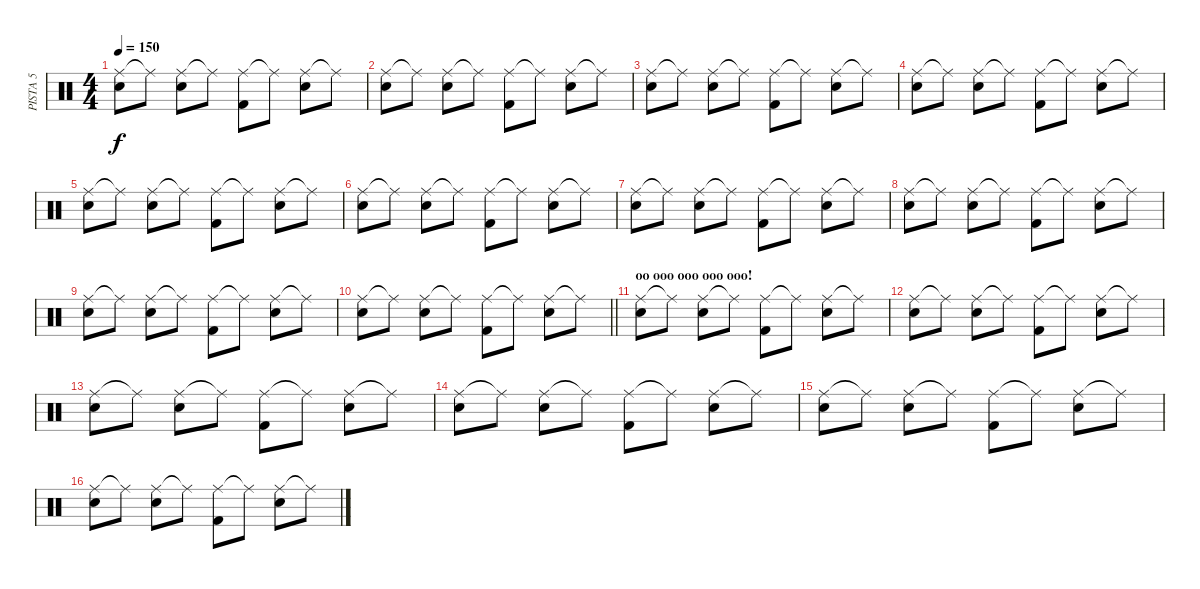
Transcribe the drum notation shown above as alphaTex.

\track ("PISTA 5" "PISTA 5") {instrument percussion}
\staff {score}
\articulation defaults
\ts (4 4)
\tempo 150
\clef neutral
\ks c
("Ride (middle)" "Snare (hit)").8{dy f} "Ride (middle)"{t}.8 ("Ride (middle)" "Electric Snare (hit)").8 "Ride (middle)"{t}.8 ("Ride (middle)" "Kick (hit) 2").8 "Ride (middle)"{t}.8 ("Ride (middle)" "Electric Snare (hit)").8 "Ride (middle)"{t}.8 |
("Ride (middle)" "Snare (hit)").8 "Ride (middle)"{t}.8 ("Ride (middle)" "Electric Snare (hit)").8 "Ride (middle)"{t}.8 ("Ride (middle)" "Kick (hit) 2").8 "Ride (middle)"{t}.8 ("Ride (middle)" "Electric Snare (hit)").8 "Ride (middle)"{t}.8 |
("Ride (middle)" "Snare (hit)").8 "Ride (middle)"{t}.8 ("Ride (middle)" "Electric Snare (hit)").8 "Ride (middle)"{t}.8 ("Ride (middle)" "Kick (hit) 2").8 "Ride (middle)"{t}.8 ("Ride (middle)" "Electric Snare (hit)").8 "Ride (middle)"{t}.8 |
("Ride (middle)" "Snare (hit)").8 "Ride (middle)"{t}.8 ("Ride (middle)" "Electric Snare (hit)").8 "Ride (middle)"{t}.8 ("Ride (middle)" "Kick (hit) 2").8 "Ride (middle)"{t}.8 ("Ride (middle)" "Electric Snare (hit)").8 "Ride (middle)"{t}.8 |
("Ride (middle)" "Snare (hit)").8 "Ride (middle)"{t}.8 ("Ride (middle)" "Electric Snare (hit)").8 "Ride (middle)"{t}.8 ("Ride (middle)" "Kick (hit) 2").8 "Ride (middle)"{t}.8 ("Ride (middle)" "Electric Snare (hit)").8 "Ride (middle)"{t}.8 |
("Ride (middle)" "Snare (hit)").8 "Ride (middle)"{t}.8 ("Ride (middle)" "Electric Snare (hit)").8 "Ride (middle)"{t}.8 ("Ride (middle)" "Kick (hit) 2").8 "Ride (middle)"{t}.8 ("Ride (middle)" "Electric Snare (hit)").8 "Ride (middle)"{t}.8 |
("Ride (middle)" "Snare (hit)").8 "Ride (middle)"{t}.8 ("Ride (middle)" "Electric Snare (hit)").8 "Ride (middle)"{t}.8 ("Ride (middle)" "Kick (hit) 2").8 "Ride (middle)"{t}.8 ("Ride (middle)" "Electric Snare (hit)").8 "Ride (middle)"{t}.8 |
("Ride (middle)" "Snare (hit)").8 "Ride (middle)"{t}.8 ("Ride (middle)" "Electric Snare (hit)").8 "Ride (middle)"{t}.8 ("Ride (middle)" "Kick (hit) 2").8 "Ride (middle)"{t}.8 ("Ride (middle)" "Electric Snare (hit)").8 "Ride (middle)"{t}.8 |
("Ride (middle)" "Snare (hit)").8 "Ride (middle)"{t}.8 ("Ride (middle)" "Electric Snare (hit)").8 "Ride (middle)"{t}.8 ("Ride (middle)" "Kick (hit) 2").8 "Ride (middle)"{t}.8 ("Ride (middle)" "Electric Snare (hit)").8 "Ride (middle)"{t}.8 |
\barLineRight lightlight
("Ride (middle)" "Snare (hit)").8 "Ride (middle)"{t}.8 ("Ride (middle)" "Electric Snare (hit)").8 "Ride (middle)"{t}.8 ("Ride (middle)" "Kick (hit) 2").8 "Ride (middle)"{t}.8 ("Ride (middle)" "Electric Snare (hit)").8 "Ride (middle)"{t}.8 |
\section ("" "oo ooo ooo ooo ooo!")
("Ride (middle)" "Snare (hit)").8 "Ride (middle)"{t}.8 ("Ride (middle)" "Electric Snare (hit)").8 "Ride (middle)"{t}.8 ("Ride (middle)" "Kick (hit) 2").8 "Ride (middle)"{t}.8 ("Ride (middle)" "Electric Snare (hit)").8 "Ride (middle)"{t}.8 |
("Ride (middle)" "Snare (hit)").8 "Ride (middle)"{t}.8 ("Ride (middle)" "Electric Snare (hit)").8 "Ride (middle)"{t}.8 ("Ride (middle)" "Kick (hit) 2").8 "Ride (middle)"{t}.8 ("Ride (middle)" "Electric Snare (hit)").8 "Ride (middle)"{t}.8 |
("Ride (middle)" "Snare (hit)").8 "Ride (middle)"{t}.8 ("Ride (middle)" "Electric Snare (hit)").8 "Ride (middle)"{t}.8 ("Ride (middle)" "Kick (hit) 2").8 "Ride (middle)"{t}.8 ("Ride (middle)" "Electric Snare (hit)").8 "Ride (middle)"{t}.8 |
("Ride (middle)" "Snare (hit)").8 "Ride (middle)"{t}.8 ("Ride (middle)" "Electric Snare (hit)").8 "Ride (middle)"{t}.8 ("Ride (middle)" "Kick (hit) 2").8 "Ride (middle)"{t}.8 ("Ride (middle)" "Electric Snare (hit)").8 "Ride (middle)"{t}.8 |
("Ride (middle)" "Snare (hit)").8 "Ride (middle)"{t}.8 ("Ride (middle)" "Electric Snare (hit)").8 "Ride (middle)"{t}.8 ("Ride (middle)" "Kick (hit) 2").8 "Ride (middle)"{t}.8 ("Ride (middle)" "Electric Snare (hit)").8 "Ride (middle)"{t}.8 |
("Ride (middle)" "Snare (hit)").8 "Ride (middle)"{t}.8 ("Ride (middle)" "Electric Snare (hit)").8 "Ride (middle)"{t}.8 ("Ride (middle)" "Kick (hit) 2").8 "Ride (middle)"{t}.8 ("Ride (middle)" "Electric Snare (hit)").8 "Ride (middle)"{t}.8
